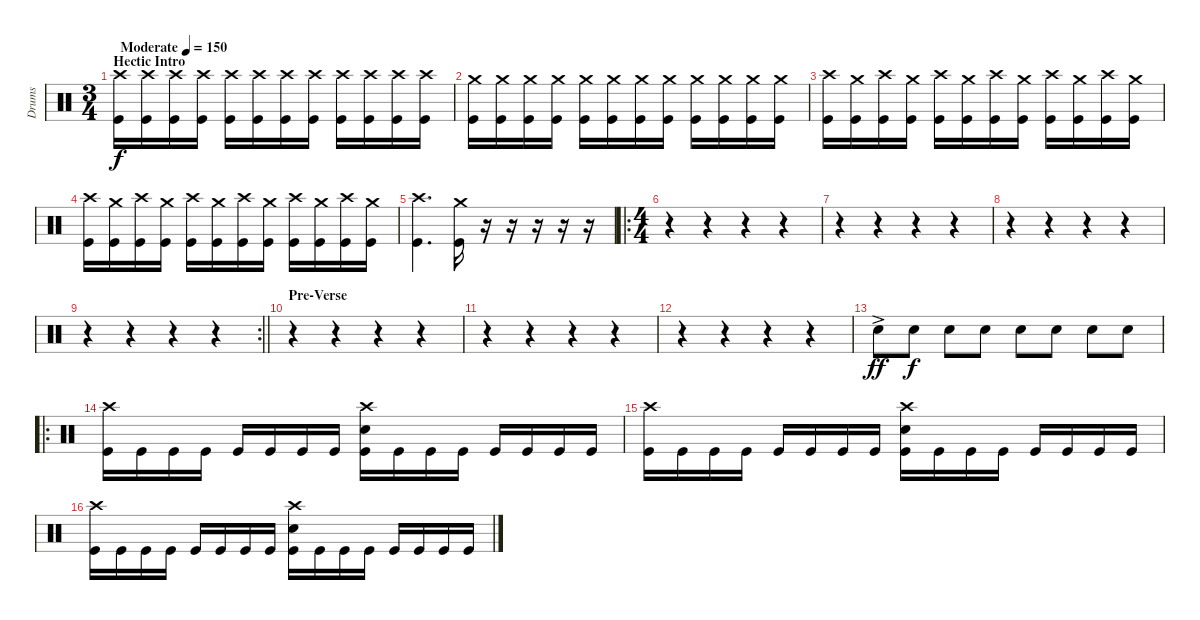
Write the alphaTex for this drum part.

\track ("Drums" "Drums") {instrument percussion}
\staff {score}
\articulation defaults
\ts (3 4)
\section ("" "Hectic Intro")
\tempo (150 "Moderate")
\clef neutral
\ks c
("Crash high (hit)" "Kick (hit)").16{dy f} ("Crash high (hit)" "Kick (hit)").16 ("Crash high (hit)" "Kick (hit)").16 ("Crash high (hit)" "Kick (hit)").16 ("Crash high (hit)" "Kick (hit)").16 ("Crash high (hit)" "Kick (hit)").16 ("Crash high (hit)" "Kick (hit)").16 ("Crash high (hit)" "Kick (hit)").16 ("Crash high (hit)" "Kick (hit)").16 ("Crash high (hit)" "Kick (hit)").16 ("Crash high (hit)" "Kick (hit)").16 ("Crash high (hit)" "Kick (hit)").16 |
("Crash medium (hit)" "Kick (hit)").16 ("Crash medium (hit)" "Kick (hit)").16 ("Crash medium (hit)" "Kick (hit)").16 ("Crash medium (hit)" "Kick (hit)").16 ("Crash medium (hit)" "Kick (hit)").16 ("Crash medium (hit)" "Kick (hit)").16 ("Crash medium (hit)" "Kick (hit)").16 ("Crash medium (hit)" "Kick (hit)").16 ("Crash medium (hit)" "Kick (hit)").16 ("Crash medium (hit)" "Kick (hit)").16 ("Crash medium (hit)" "Kick (hit)").16 ("Crash medium (hit)" "Kick (hit)").16 |
("Crash high (hit)" "Kick (hit)").16 ("Crash medium (hit)" "Kick (hit)").16 ("Crash high (hit)" "Kick (hit)").16 ("Crash medium (hit)" "Kick (hit)").16 ("Crash high (hit)" "Kick (hit)").16 ("Crash medium (hit)" "Kick (hit)").16 ("Crash high (hit)" "Kick (hit)").16 ("Crash medium (hit)" "Kick (hit)").16 ("Crash high (hit)" "Kick (hit)").16 ("Crash medium (hit)" "Kick (hit)").16 ("Crash high (hit)" "Kick (hit)").16 ("Crash medium (hit)" "Kick (hit)").16 |
("Crash high (hit)" "Kick (hit)").16 ("Crash medium (hit)" "Kick (hit)").16 ("Crash high (hit)" "Kick (hit)").16 ("Crash medium (hit)" "Kick (hit)").16 ("Crash high (hit)" "Kick (hit)").16 ("Crash medium (hit)" "Kick (hit)").16 ("Crash high (hit)" "Kick (hit)").16 ("Crash medium (hit)" "Kick (hit)").16 ("Crash high (hit)" "Kick (hit)").16 ("Crash medium (hit)" "Kick (hit)").16 ("Crash high (hit)" "Kick (hit)").16 ("Crash medium (hit)" "Kick (hit)").16 |
("Crash high (hit)" "Kick (hit)").4{d} ("Crash medium (hit)" "Kick (hit)").16 r.16 r.16 r.16 r.16 r.16 |
\ro
\ts (4 4)
r.4 r.4 r.4 r.4 |
r.4 r.4 r.4 r.4 |
r.4 r.4 r.4 r.4 |
\rc 2
\barLineRight lightlight
r.4 r.4 r.4 r.4 |
\section ("" "Pre-Verse")
r.4 r.4 r.4 r.4 |
r.4 r.4 r.4 r.4 |
r.4 r.4 r.4 r.4 |
"Electric Snare (hit)"{ac}.8{dy ff} "Electric Snare (hit)".8{dy f} "Electric Snare (hit)".8 "Electric Snare (hit)".8 "Electric Snare (hit)".8 "Electric Snare (hit)".8 "Electric Snare (hit)".8 "Electric Snare (hit)".8 |
\ro
("Crash high (hit)" "Kick (hit)").16 "Kick (hit)".16 "Kick (hit)".16 "Kick (hit)".16 "Kick (hit)".16 "Kick (hit)".16 "Kick (hit)".16 "Kick (hit)".16 ("Electric Snare (hit)" "Crash high (hit)" "Kick (hit)").16 "Kick (hit)".16 "Kick (hit)".16 "Kick (hit)".16 "Kick (hit)".16 "Kick (hit)".16 "Kick (hit)".16 "Kick (hit)".16 |
("Crash high (hit)" "Kick (hit)").16 "Kick (hit)".16 "Kick (hit)".16 "Kick (hit)".16 "Kick (hit)".16 "Kick (hit)".16 "Kick (hit)".16 "Kick (hit)".16 ("Electric Snare (hit)" "Crash high (hit)" "Kick (hit)").16 "Kick (hit)".16 "Kick (hit)".16 "Kick (hit)".16 "Kick (hit)".16 "Kick (hit)".16 "Kick (hit)".16 "Kick (hit)".16 |
("Crash high (hit)" "Kick (hit)").16 "Kick (hit)".16 "Kick (hit)".16 "Kick (hit)".16 "Kick (hit)".16 "Kick (hit)".16 "Kick (hit)".16 "Kick (hit)".16 ("Electric Snare (hit)" "Crash high (hit)" "Kick (hit)").16 "Kick (hit)".16 "Kick (hit)".16 "Kick (hit)".16 "Kick (hit)".16 "Kick (hit)".16 "Kick (hit)".16 "Kick (hit)".16
